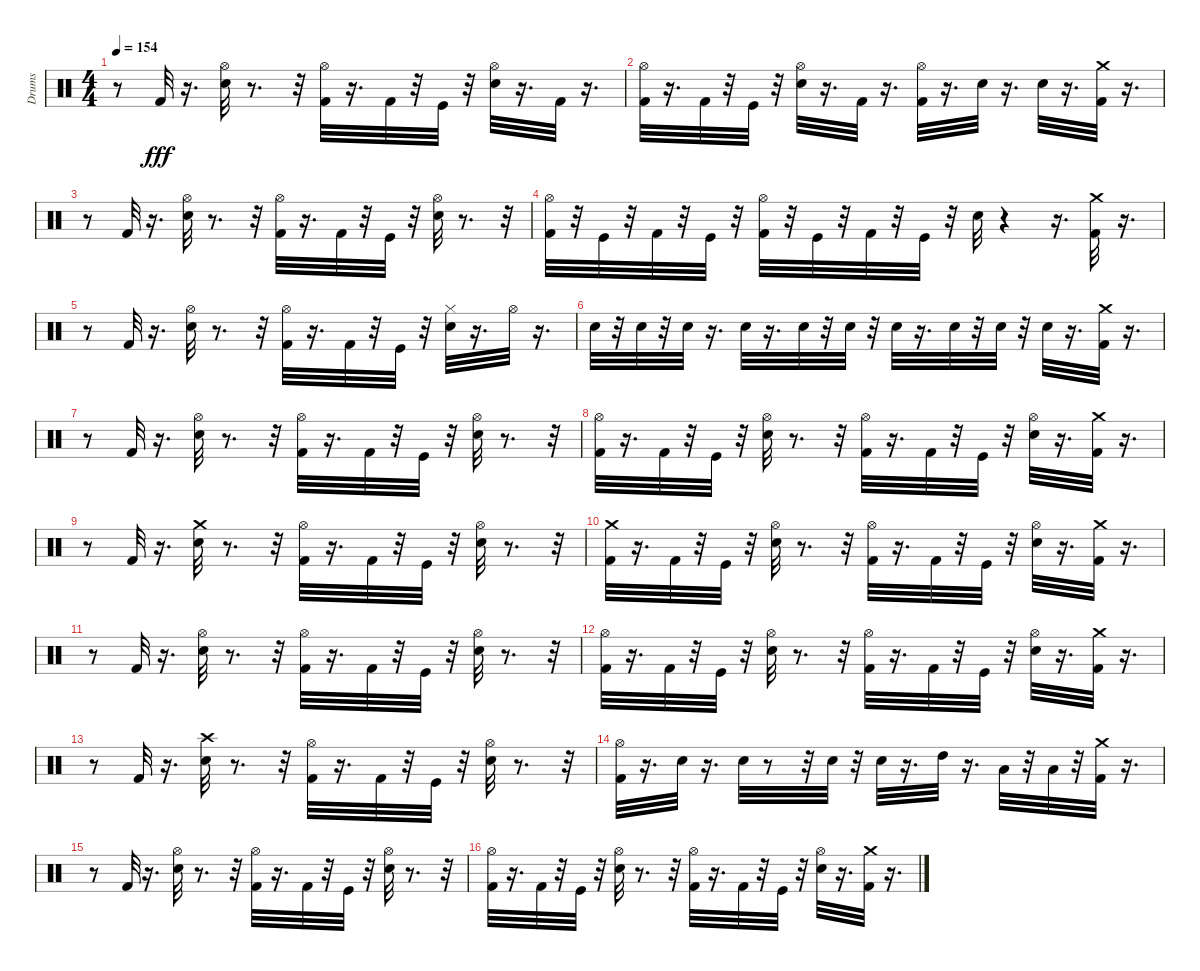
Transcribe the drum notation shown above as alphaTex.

\track ("Drums" "Drums") {instrument percussion}
\staff {score}
\articulation defaults
\ts (4 4)
\tempo 154
\clef neutral
\ks c
r.8{dy fff} "Kick (hit) 2".32 r.16{d} ("Snare (hit) 2" "Hi-Hat (open)").32 r.8{d} r.32 ("Kick (hit) 2" "Hi-Hat (open)").32 r.16{d} "Kick (hit) 2".32 r.32 "Kick (hit)".32 r.32 ("Snare (hit) 2" "Hi-Hat (open)").32 r.16{d} "Kick (hit) 2".32 r.16{d} |
("Kick (hit) 2" "Hi-Hat (open)").32 r.16{d} "Kick (hit) 2".32 r.32 "Kick (hit)".32 r.32 ("Snare (hit) 2" "Hi-Hat (open)").32 r.16{d} "Kick (hit) 2".32 r.16{d} ("Kick (hit) 2" "Hi-Hat (open)").32 r.16{d} "Snare (hit) 2".32 r.16{d} "Snare (hit) 2".32 r.16{d} ("Kick (hit) 2" "Crash medium (hit)").32 r.16{d} |
r.8 "Kick (hit) 2".32 r.16{d} ("Snare (hit) 2" "Hi-Hat (open)").32 r.8{d} r.32 ("Kick (hit) 2" "Hi-Hat (open)").32 r.16{d} "Kick (hit) 2".32 r.32 "Kick (hit)".32 r.32 ("Snare (hit) 2" "Hi-Hat (open)").32 r.8{d} r.32 |
("Kick (hit) 2" "Hi-Hat (open)").32 r.32 "Kick (hit)".32 r.32 "Kick (hit) 2".32 r.32 "Kick (hit)".32 r.32 ("Kick (hit) 2" "Hi-Hat (open)").32 r.32 "Kick (hit)".32 r.32 "Kick (hit) 2".32 r.32 "Kick (hit)".32 r.32 "Snare (hit) 2".32 r.4 r.16{d} ("Crash medium (hit)" "Kick (hit) 2").32 r.16{d} |
r.8 "Kick (hit) 2".32 r.16{d} ("Snare (hit) 2" "Hi-Hat (open)").32 r.8{d} r.32 ("Kick (hit) 2" "Hi-Hat (open)").32 r.16{d} "Kick (hit) 2".32 r.32 "Kick (hit)".32 r.32 ("Snare (hit) 2" "Hi-Hat (closed)").32 r.16{d} "Hi-Hat (open)".32 r.16{d} |
"Snare (hit) 2".32 r.32 "Snare (hit) 2".32 r.32 "Snare (hit) 2".32 r.16{d} "Snare (hit) 2".32 r.16{d} "Snare (hit) 2".32 r.32 "Snare (hit) 2".32 r.32 "Snare (hit) 2".32 r.16{d} "Snare (hit) 2".32 r.32 "Snare (hit) 2".32 r.32 "Snare (hit) 2".32 r.16{d} ("Crash medium (hit)" "Kick (hit) 2").32 r.16{d} |
r.8 "Kick (hit) 2".32 r.16{d} ("Snare (hit) 2" "Hi-Hat (open)").32 r.8{d} r.32 ("Kick (hit) 2" "Hi-Hat (open)").32 r.16{d} "Kick (hit) 2".32 r.32 "Kick (hit)".32 r.32 ("Snare (hit) 2" "Hi-Hat (open)").32 r.8{d} r.32 |
("Kick (hit) 2" "Hi-Hat (open)").32 r.16{d} "Kick (hit) 2".32 r.32 "Kick (hit)".32 r.32 ("Snare (hit) 2" "Hi-Hat (open)").32 r.8{d} r.32 ("Kick (hit) 2" "Hi-Hat (open)").32 r.16{d} "Kick (hit) 2".32 r.32 "Kick (hit)".32 r.32 ("Snare (hit) 2" "Hi-Hat (open)").32 r.16{d} ("Kick (hit) 2" "Crash medium (hit)").32 r.16{d} |
r.8 "Kick (hit) 2".32 r.16{d} ("Snare (hit) 2" "Crash medium (hit)").32 r.8{d} r.32 ("Kick (hit) 2" "Hi-Hat (open)").32 r.16{d} "Kick (hit) 2".32 r.32 "Kick (hit)".32 r.32 ("Snare (hit) 2" "Hi-Hat (open)").32 r.8{d} r.32 |
("Kick (hit) 2" "Crash medium (hit)").32 r.16{d} "Kick (hit) 2".32 r.32 "Kick (hit)".32 r.32 ("Snare (hit) 2" "Hi-Hat (open)").32 r.8{d} r.32 ("Kick (hit) 2" "Hi-Hat (open)").32 r.16{d} "Kick (hit) 2".32 r.32 "Kick (hit)".32 r.32 ("Snare (hit) 2" "Hi-Hat (open)").32 r.16{d} ("Kick (hit) 2" "Crash medium (hit)").32 r.16{d} |
r.8 "Kick (hit) 2".32 r.16{d} ("Snare (hit) 2" "Hi-Hat (open)").32 r.8{d} r.32 ("Kick (hit) 2" "Hi-Hat (open)").32 r.16{d} "Kick (hit) 2".32 r.32 "Kick (hit)".32 r.32 ("Snare (hit) 2" "Hi-Hat (open)").32 r.8{d} r.32 |
("Kick (hit) 2" "Hi-Hat (open)").32 r.16{d} "Kick (hit) 2".32 r.32 "Kick (hit)".32 r.32 ("Snare (hit) 2" "Hi-Hat (open)").32 r.8{d} r.32 ("Kick (hit) 2" "Hi-Hat (open)").32 r.16{d} "Kick (hit) 2".32 r.32 "Kick (hit)".32 r.32 ("Snare (hit) 2" "Hi-Hat (open)").32 r.16{d} ("Kick (hit) 2" "Crash medium (hit)").32 r.16{d} |
r.8 "Kick (hit) 2".32 r.16{d} ("Snare (hit) 2" "Crash high (hit)").32 r.8{d} r.32 ("Kick (hit) 2" "Hi-Hat (open)").32 r.16{d} "Kick (hit) 2".32 r.32 "Kick (hit)".32 r.32 ("Snare (hit) 2" "Hi-Hat (open)").32 r.8{d} r.32 |
("Kick (hit) 2" "Hi-Hat (open)").32 r.16{d} "Snare (hit) 2".32 r.16{d} "Snare (hit) 2".32 r.8 r.32 "Snare (hit) 2".32 r.32 "Snare (hit) 2".32 r.16{d} "High Tom (hit)".32 r.16{d} "Low Tom (hit)".32 r.32 "Low Tom (hit)".32 r.32 ("Crash medium (hit)" "Kick (hit) 2").32 r.16{d} |
r.8 "Kick (hit) 2".32 r.16{d} ("Snare (hit) 2" "Hi-Hat (open)").32 r.8{d} r.32 ("Kick (hit) 2" "Hi-Hat (open)").32 r.16{d} "Kick (hit) 2".32 r.32 "Kick (hit)".32 r.32 ("Snare (hit) 2" "Hi-Hat (open)").32 r.8{d} r.32 |
("Kick (hit) 2" "Hi-Hat (open)").32 r.16{d} "Kick (hit) 2".32 r.32 "Kick (hit)".32 r.32 ("Snare (hit) 2" "Hi-Hat (open)").32 r.8{d} r.32 ("Kick (hit) 2" "Hi-Hat (open)").32 r.16{d} "Kick (hit) 2".32 r.32 "Kick (hit)".32 r.32 ("Snare (hit) 2" "Hi-Hat (open)").32 r.16{d} ("Kick (hit) 2" "Crash medium (hit)").32 r.16{d}
